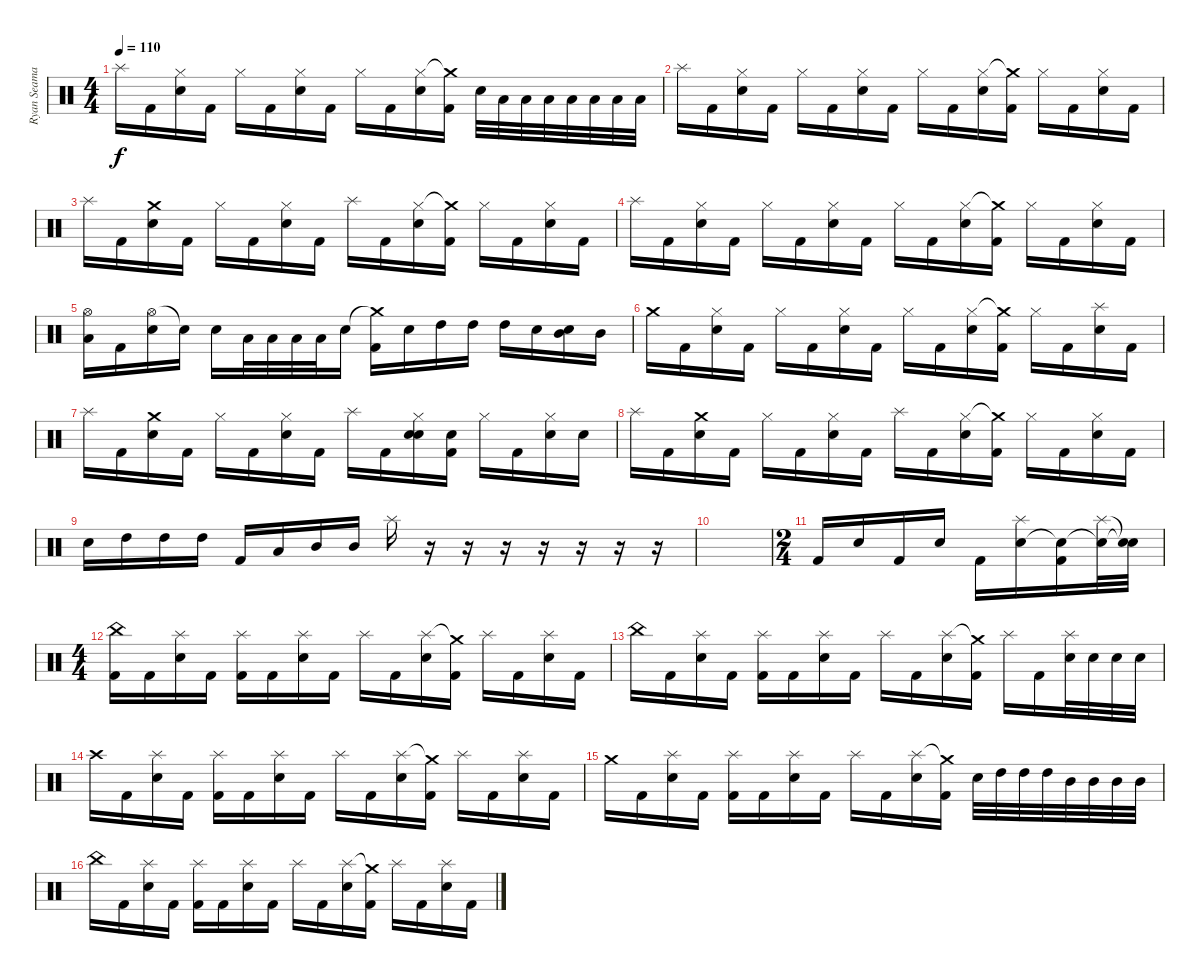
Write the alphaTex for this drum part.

\track ("Ryan Seaman-Drums" "Ryan Seama") {instrument percussion}
\staff {score}
\articulation defaults
\ts (4 4)
\tempo 110
\clef neutral
\ks c "Splash (hit)".16{dy f} "Kick (hit) 2".16
("Hi-Hat (closed)" "Electric Snare (hit)").16 "Kick (hit) 2".16 "Hi-Hat (closed)".16 "Kick (hit) 2".16 ("Hi-Hat (closed)" "Electric Snare (hit)").16 "Kick (hit) 2".16 "Hi-Hat (closed)".16 "Kick (hit) 2".16 ("Hi-Hat (closed)" "Electric Snare (hit)").16 ("Crash medium (hit)"{t} "Kick (hit) 2").16 "Electric Snare (hit)".32 "Low Tom (hit)".32 "Low Tom (hit)".32 "Low Tom (hit)".32 "Low Floor Tom (hit)".32 "Low Floor Tom (hit)".32 "Low Floor Tom (hit)".32 "Low Floor Tom (hit)".32 |
"Splash (hit)".16 "Kick (hit) 2".16 ("Hi-Hat (closed)" "Electric Snare (hit)").16 "Kick (hit) 2".16 "Hi-Hat (closed)".16 "Kick (hit) 2".16 ("Hi-Hat (closed)" "Electric Snare (hit)").16 "Kick (hit) 2".16 "Hi-Hat (closed)".16 "Kick (hit) 2".16 ("Hi-Hat (closed)" "Electric Snare (hit)").16 ("Crash medium (hit)"{t} "Kick (hit) 2").16 "Hi-Hat (closed)".16 "Kick (hit) 2".16 ("Electric Snare (hit)" "Hi-Hat (closed)").16 "Kick (hit) 2".16 |
"Splash (hit)".16 "Kick (hit) 2".16 ("Crash medium (hit)" "Electric Snare (hit)").16 "Kick (hit) 2".16 "Hi-Hat (closed)".16 "Kick (hit) 2".16 ("Hi-Hat (closed)" "Electric Snare (hit)").16 "Kick (hit) 2".16 "Splash (hit)".16 "Kick (hit) 2".16 ("Hi-Hat (closed)" "Electric Snare (hit)").16 ("Crash medium (hit)"{t} "Kick (hit) 2").16 "Hi-Hat (closed)".16 "Kick (hit) 2".16 ("Electric Snare (hit)" "Hi-Hat (closed)").16 "Kick (hit) 2".16 |
"Splash (hit)".16 "Kick (hit) 2".16 ("Hi-Hat (closed)" "Electric Snare (hit)").16 "Kick (hit) 2".16 "Hi-Hat (closed)".16 "Kick (hit) 2".16 ("Hi-Hat (closed)" "Electric Snare (hit)").16 "Kick (hit) 2".16 "Hi-Hat (closed)".16 "Kick (hit) 2".16 ("Hi-Hat (closed)" "Electric Snare (hit)").16 ("Crash medium (hit)"{t} "Kick (hit) 2").16 "Hi-Hat (closed)".16 "Kick (hit) 2".16 ("Electric Snare (hit)" "Hi-Hat (closed)").16 "Kick (hit) 2".16 |
("Low Tom (hit)" "Hi-Hat (open)").16 "Kick (hit) 2".16 ("Hi-Hat (open)" "Electric Snare (hit)").16 "Electric Snare (hit)"{t}.16 "Electric Snare (hit)".16 "Low Floor Tom (hit)".32 "Low Floor Tom (hit)".32 "Low Floor Tom (hit)".32 "Low Floor Tom (hit)".32 "Electric Snare (hit)".16 ("Crash medium (hit)"{t} "Kick (hit) 2").16 "Electric Snare (hit)".16 "High Tom (hit)".16 "High Tom (hit)".16 "High Tom (hit)".16 "Electric Snare (hit)".16 ("Electric Snare (hit)" "Mid Tom (hit)").16 "Mid Tom (hit)".16 |
"Crash medium (hit)".16 "Kick (hit) 2".16 ("Hi-Hat (closed)" "Electric Snare (hit)").16 "Kick (hit) 2".16 "Hi-Hat (closed)".16 "Kick (hit) 2".16 ("Hi-Hat (closed)" "Electric Snare (hit)").16 "Kick (hit) 2".16 "Hi-Hat (closed)".16 "Kick (hit) 2".16 ("Hi-Hat (closed)" "Electric Snare (hit)").16 ("Crash medium (hit)"{t} "Kick (hit) 2").16 "Hi-Hat (closed)".16 "Kick (hit) 2".16 ("Electric Snare (hit)" "Splash (hit)").16 "Kick (hit) 2".16 |
"Splash (hit)".16 "Kick (hit) 2".16 ("Crash medium (hit)" "Electric Snare (hit)").16 "Kick (hit) 2".16 "Hi-Hat (closed)".16 "Kick (hit) 2".16 ("Hi-Hat (closed)" "Electric Snare (hit)").16 "Kick (hit) 2".16 "Splash (hit)".16 "Kick (hit) 2".16 ("Electric Snare (hit)" "Hi-Hat (closed)" "Electric Snare (hit)").16 ("Electric Snare (hit)" "Kick (hit) 2").16 "Hi-Hat (closed)".16 "Kick (hit) 2".16 ("Electric Snare (hit)" "Hi-Hat (closed)").16 "Electric Snare (hit)".16 |
"Splash (hit)".16 "Kick (hit) 2".16 ("Crash medium (hit)" "Electric Snare (hit)").16 "Kick (hit) 2".16 "Hi-Hat (closed)".16 "Kick (hit) 2".16 ("Hi-Hat (closed)" "Electric Snare (hit)").16 "Kick (hit) 2".16 "Splash (hit)".16 "Kick (hit) 2".16 ("Hi-Hat (closed)" "Electric Snare (hit)").16 ("Crash medium (hit)"{t} "Kick (hit) 2").16 "Hi-Hat (closed)".16 "Kick (hit) 2".16 ("Electric Snare (hit)" "Hi-Hat (closed)").16 "Kick (hit) 2".16 |
"Electric Snare (hit)".16 "High Tom (hit)".16 "High Tom (hit)".16 "High Tom (hit)".16 "Kick (hit) 2".16 "Low Tom (hit)".16 "Mid Tom (hit)".16 "Mid Tom (hit)".16 "Splash (hit)".16 r.16 r.16 r.16 r.16 r.16 r.16 r.16 |
|
\ts (2 4)
"Kick (hit) 2".16 "Electric Snare (hit)".16 "Kick (hit) 2".16 "Electric Snare (hit)".16 "Kick (hit) 2".16 ("Splash (hit)" "Electric Snare (hit)").16 ("Kick (hit) 2" "Electric Snare (hit)"{t}).16 ("Splash (hit)" "Electric Snare (hit)"{t}).32 ("Snare (hit)"{t} "Electric Snare (hit)"{t}).32 |
\ts (4 4)
("Kick (hit) 2" "China (hit)").16 "Kick (hit) 2".16 ("Splash (hit)" "Electric Snare (hit)").16 "Kick (hit) 2".16 ("Splash (hit)" "Kick (hit) 2").16 "Kick (hit) 2".16 ("Splash (hit)" "Electric Snare (hit)").16 "Kick (hit) 2".16 "Splash (hit)".16 "Kick (hit) 2".16 ("Splash (hit)" "Electric Snare (hit)").16 ("Crash medium (hit)"{t} "Kick (hit) 2").16 "Splash (hit)".16 "Kick (hit) 2".16 ("Electric Snare (hit)" "Splash (hit)").16 "Kick (hit) 2".16 |
"China (hit)".16 "Kick (hit) 2".16 ("Splash (hit)" "Electric Snare (hit)").16 "Kick (hit) 2".16 ("Splash (hit)" "Kick (hit) 2").16 "Kick (hit) 2".16 ("Splash (hit)" "Electric Snare (hit)").16 "Kick (hit) 2".16 "Splash (hit)".16 "Kick (hit) 2".16 ("Splash (hit)" "Electric Snare (hit)").16 ("Crash medium (hit)"{t} "Kick (hit) 2").16 "Splash (hit)".16 "Kick (hit) 2".16 ("Electric Snare (hit)" "Splash (hit)").32 "Electric Snare (hit)".32 "Electric Snare (hit)".32 "Electric Snare (hit)".32 |
"Crash high (hit)".16 "Kick (hit) 2".16 ("Splash (hit)" "Electric Snare (hit)").16 "Kick (hit) 2".16 ("Splash (hit)" "Kick (hit) 2").16 "Kick (hit) 2".16 ("Splash (hit)" "Electric Snare (hit)").16 "Kick (hit) 2".16 "Splash (hit)".16 "Kick (hit) 2".16 ("Splash (hit)" "Electric Snare (hit)").16 ("Crash medium (hit)"{t} "Kick (hit) 2").16 "Splash (hit)".16 "Kick (hit) 2".16 ("Electric Snare (hit)" "Splash (hit)").16 "Kick (hit) 2".16 |
"Crash medium (hit)".16 "Kick (hit) 2".16 ("Splash (hit)" "Electric Snare (hit)").16 "Kick (hit) 2".16 ("Splash (hit)" "Kick (hit) 2").16 "Kick (hit) 2".16 ("Splash (hit)" "Electric Snare (hit)").16 "Kick (hit) 2".16 "Splash (hit)".16 "Kick (hit) 2".16 ("Splash (hit)" "Electric Snare (hit)").16 ("Crash medium (hit)"{t} "Kick (hit) 2").16 "Electric Snare (hit)".32 "High Tom (hit)".32 "High Tom (hit)".32 "High Tom (hit)".32 "Mid Tom (hit)".32 "Mid Tom (hit)".32 "Mid Tom (hit)".32 "Mid Tom (hit)".32 |
"China (hit)".16 "Kick (hit) 2".16 ("Splash (hit)" "Electric Snare (hit)").16 "Kick (hit) 2".16 ("Splash (hit)" "Kick (hit) 2").16 "Kick (hit) 2".16 ("Splash (hit)" "Electric Snare (hit)").16 "Kick (hit) 2".16 "Splash (hit)".16 "Kick (hit) 2".16 ("Splash (hit)" "Electric Snare (hit)").16 ("Crash medium (hit)"{t} "Kick (hit) 2").16 "Splash (hit)".16 "Kick (hit) 2".16 ("Electric Snare (hit)" "Splash (hit)").16 "Kick (hit) 2".16
